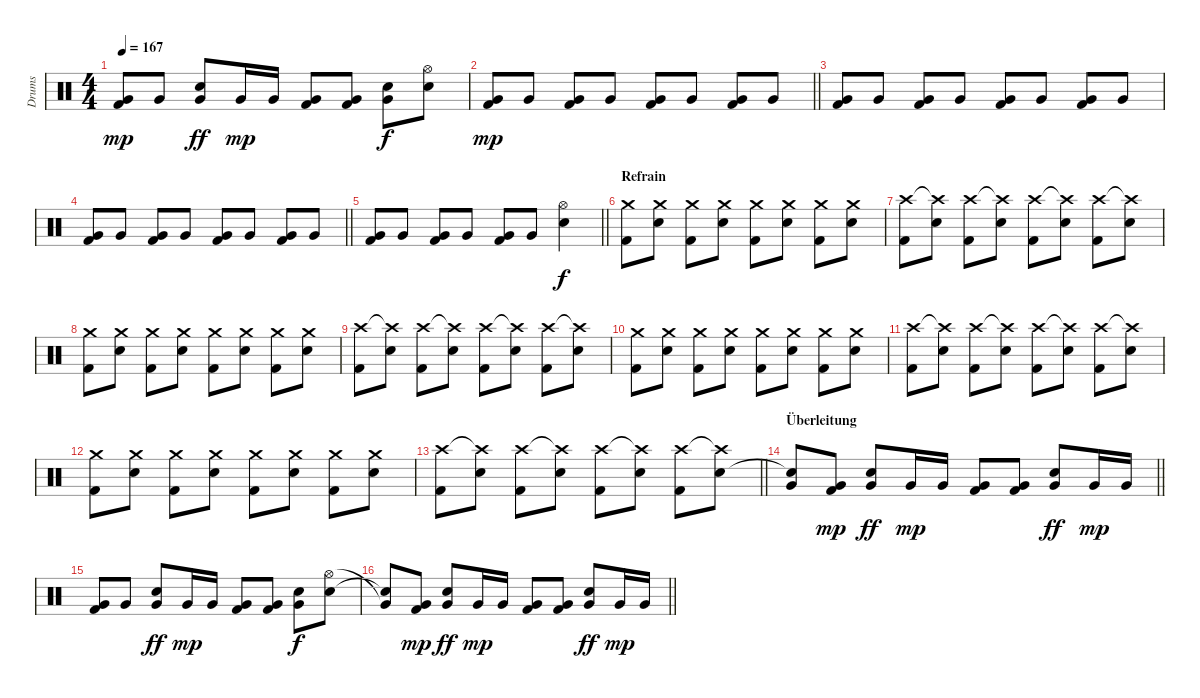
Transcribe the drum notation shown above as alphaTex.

\track ("Drums" "Drums") {instrument percussion}
\staff {score}
\articulation defaults
\ts (4 4)
\tempo 167
\clef neutral
\ks c
("Very Low Tom (hit)" "Kick (hit) 2").8{dy mp} "Very Low Tom (hit)".8 ("Very Low Tom (hit)" "Snare (hit) 2").8{dy ff} "Very Low Tom (hit)".16{dy mp} "Very Low Tom (hit)".16 ("Very Low Tom (hit)" "Kick (hit) 2").8 ("Very Low Tom (hit)" "Kick (hit) 2").8 ("Very Low Tom (hit)" "Snare (hit) 2").8{dy f} ("Hi-Hat (open)" "Snare (hit) 2").8 |
\barLineRight lightlight
("Very Low Tom (hit)" "Kick (hit) 2").8{dy mp} "Very Low Tom (hit)".8 ("Very Low Tom (hit)" "Kick (hit) 2").8 "Very Low Tom (hit)".8 ("Very Low Tom (hit)" "Kick (hit) 2").8 "Very Low Tom (hit)".8 ("Very Low Tom (hit)" "Kick (hit) 2").8 "Very Low Tom (hit)".8 |
("Very Low Tom (hit)" "Kick (hit) 2").8 "Very Low Tom (hit)".8 ("Very Low Tom (hit)" "Kick (hit) 2").8 "Very Low Tom (hit)".8 ("Very Low Tom (hit)" "Kick (hit) 2").8 "Very Low Tom (hit)".8 ("Very Low Tom (hit)" "Kick (hit) 2").8 "Very Low Tom (hit)".8 |
\barLineRight lightlight
("Very Low Tom (hit)" "Kick (hit) 2").8 "Very Low Tom (hit)".8 ("Very Low Tom (hit)" "Kick (hit) 2").8 "Very Low Tom (hit)".8 ("Very Low Tom (hit)" "Kick (hit) 2").8 "Very Low Tom (hit)".8 ("Very Low Tom (hit)" "Kick (hit) 2").8 "Very Low Tom (hit)".8 |
\barLineRight lightlight
("Very Low Tom (hit)" "Kick (hit) 2").8 "Very Low Tom (hit)".8 ("Very Low Tom (hit)" "Kick (hit) 2").8 "Very Low Tom (hit)".8 ("Very Low Tom (hit)" "Kick (hit) 2").8 "Very Low Tom (hit)".8 ("Hi-Hat (open)" "Snare (hit) 2").4{dy f} |
\section ("" "Refrain")
("Crash medium (hit)" "Kick (hit) 2").8 ("Crash medium (hit)" "Snare (hit) 2").8 ("Crash medium (hit)" "Kick (hit) 2").8 ("Crash medium (hit)" "Snare (hit) 2").8 ("Crash medium (hit)" "Kick (hit) 2").8 ("Crash medium (hit)" "Snare (hit) 2").8 ("Crash medium (hit)" "Kick (hit) 2").8 ("Crash medium (hit)" "Snare (hit) 2").8 |
("Crash high (hit)" "Kick (hit) 2").8 ("Crash high (hit)"{t} "Snare (hit) 2").8 ("Crash high (hit)" "Kick (hit) 2").8 ("Crash high (hit)"{t} "Snare (hit) 2").8 ("Crash high (hit)" "Kick (hit) 2").8 ("Crash high (hit)"{t} "Snare (hit) 2").8 ("Crash high (hit)" "Kick (hit) 2").8 ("Crash high (hit)"{t} "Snare (hit) 2").8 |
("Crash medium (hit)" "Kick (hit) 2").8 ("Crash medium (hit)" "Snare (hit) 2").8 ("Crash medium (hit)" "Kick (hit) 2").8 ("Crash medium (hit)" "Snare (hit) 2").8 ("Crash medium (hit)" "Kick (hit) 2").8 ("Crash medium (hit)" "Snare (hit) 2").8 ("Crash medium (hit)" "Kick (hit) 2").8 ("Crash medium (hit)" "Snare (hit) 2").8 |
("Crash high (hit)" "Kick (hit) 2").8 ("Crash high (hit)"{t} "Snare (hit) 2").8 ("Crash high (hit)" "Kick (hit) 2").8 ("Crash high (hit)"{t} "Snare (hit) 2").8 ("Crash high (hit)" "Kick (hit) 2").8 ("Crash high (hit)"{t} "Snare (hit) 2").8 ("Crash high (hit)" "Kick (hit) 2").8 ("Crash high (hit)"{t} "Snare (hit) 2").8 |
("Crash medium (hit)" "Kick (hit) 2").8 ("Crash medium (hit)" "Snare (hit) 2").8 ("Crash medium (hit)" "Kick (hit) 2").8 ("Crash medium (hit)" "Snare (hit) 2").8 ("Crash medium (hit)" "Kick (hit) 2").8 ("Crash medium (hit)" "Snare (hit) 2").8 ("Crash medium (hit)" "Kick (hit) 2").8 ("Crash medium (hit)" "Snare (hit) 2").8 |
("Crash high (hit)" "Kick (hit) 2").8 ("Crash high (hit)"{t} "Snare (hit) 2").8 ("Crash high (hit)" "Kick (hit) 2").8 ("Crash high (hit)"{t} "Snare (hit) 2").8 ("Crash high (hit)" "Kick (hit) 2").8 ("Crash high (hit)"{t} "Snare (hit) 2").8 ("Crash high (hit)" "Kick (hit) 2").8 ("Crash high (hit)"{t} "Snare (hit) 2").8 |
("Crash medium (hit)" "Kick (hit) 2").8 ("Crash medium (hit)" "Snare (hit) 2").8 ("Crash medium (hit)" "Kick (hit) 2").8 ("Crash medium (hit)" "Snare (hit) 2").8 ("Crash medium (hit)" "Kick (hit) 2").8 ("Crash medium (hit)" "Snare (hit) 2").8 ("Crash medium (hit)" "Kick (hit) 2").8 ("Crash medium (hit)" "Snare (hit) 2").8 |
\barLineRight lightlight
("Crash high (hit)" "Kick (hit) 2").8 ("Crash high (hit)"{t} "Snare (hit) 2").8 ("Crash high (hit)" "Kick (hit) 2").8 ("Crash high (hit)"{t} "Snare (hit) 2").8 ("Crash high (hit)" "Kick (hit) 2").8 ("Crash high (hit)"{t} "Snare (hit) 2").8 ("Crash high (hit)" "Kick (hit) 2").8 ("Crash high (hit)"{t} "Snare (hit) 2").8 |
\section ("" "Überleitung")
\barLineRight lightlight
("Very Low Tom (hit)" "Snare (hit)"{t}).8 ("Very Low Tom (hit)" "Kick (hit) 2").8{dy mp} ("Very Low Tom (hit)" "Snare (hit) 2").8{dy ff} "Very Low Tom (hit)".16{dy mp} "Very Low Tom (hit)".16 ("Very Low Tom (hit)" "Kick (hit) 2").8 ("Very Low Tom (hit)" "Kick (hit) 2").8 ("Very Low Tom (hit)" "Snare (hit) 2").8{dy ff} "Very Low Tom (hit)".16{dy mp} "Very Low Tom (hit)".16 |
("Very Low Tom (hit)" "Kick (hit) 2").8 "Very Low Tom (hit)".8 ("Very Low Tom (hit)" "Snare (hit) 2").8{dy ff} "Very Low Tom (hit)".16{dy mp} "Very Low Tom (hit)".16 ("Very Low Tom (hit)" "Kick (hit) 2").8 ("Very Low Tom (hit)" "Kick (hit) 2").8 ("Very Low Tom (hit)" "Snare (hit) 2").8{dy f} ("Hi-Hat (open)" "Snare (hit) 2").8 |
\barLineRight lightlight
("Very Low Tom (hit)"{t} "Snare (hit)"{t}).8 ("Very Low Tom (hit)" "Kick (hit) 2").8{dy mp} ("Very Low Tom (hit)" "Snare (hit) 2").8{dy ff} "Very Low Tom (hit)".16{dy mp} "Very Low Tom (hit)".16 ("Very Low Tom (hit)" "Kick (hit) 2").8 ("Very Low Tom (hit)" "Kick (hit) 2").8 ("Very Low Tom (hit)" "Snare (hit) 2").8{dy ff} "Very Low Tom (hit)".16{dy mp} "Very Low Tom (hit)".16
